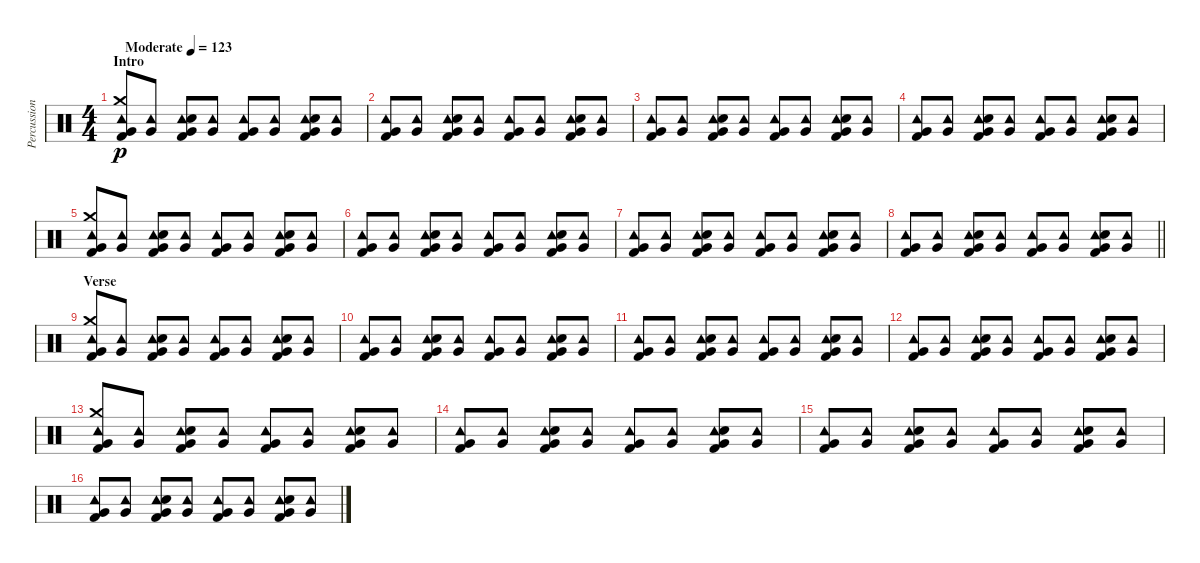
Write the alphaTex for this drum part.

\track ("Percussion" "Percussion") {instrument percussion}
\staff {score}
\articulation defaults
\ts (4 4)
\section ("" "Intro")
\tempo (123 "Moderate")
\clef neutral
\ks c
("Tambourine (hit)" "Crash medium (hit)" "Very Low Tom (hit)" "Kick (hit) 2").8{dy p} ("Tambourine (hit)" "Very Low Tom (hit)").8 ("Tambourine (hit)" "Very Low Tom (hit)" "Snare (hit) 2" "Kick (hit) 2").8 ("Tambourine (hit)" "Very Low Tom (hit)").8 ("Tambourine (hit)" "Very Low Tom (hit)" "Kick (hit) 2").8 ("Tambourine (hit)" "Very Low Tom (hit)").8 ("Tambourine (hit)" "Very Low Tom (hit)" "Snare (hit) 2" "Kick (hit) 2").8 ("Tambourine (hit)" "Very Low Tom (hit)").8 |
("Tambourine (hit)" "Very Low Tom (hit)" "Kick (hit) 2").8 ("Tambourine (hit)" "Very Low Tom (hit)").8 ("Tambourine (hit)" "Very Low Tom (hit)" "Snare (hit) 2" "Kick (hit) 2").8 ("Tambourine (hit)" "Very Low Tom (hit)").8 ("Tambourine (hit)" "Very Low Tom (hit)" "Kick (hit) 2").8 ("Tambourine (hit)" "Very Low Tom (hit)").8 ("Tambourine (hit)" "Very Low Tom (hit)" "Snare (hit) 2" "Kick (hit) 2").8 ("Tambourine (hit)" "Very Low Tom (hit)").8 |
("Tambourine (hit)" "Very Low Tom (hit)" "Kick (hit) 2").8 ("Tambourine (hit)" "Very Low Tom (hit)").8 ("Tambourine (hit)" "Very Low Tom (hit)" "Snare (hit) 2" "Kick (hit) 2").8 ("Tambourine (hit)" "Very Low Tom (hit)").8 ("Tambourine (hit)" "Very Low Tom (hit)" "Kick (hit) 2").8 ("Tambourine (hit)" "Very Low Tom (hit)").8 ("Tambourine (hit)" "Very Low Tom (hit)" "Snare (hit) 2" "Kick (hit) 2").8 ("Tambourine (hit)" "Very Low Tom (hit)").8 |
("Tambourine (hit)" "Very Low Tom (hit)" "Kick (hit) 2").8 ("Tambourine (hit)" "Very Low Tom (hit)").8 ("Tambourine (hit)" "Very Low Tom (hit)" "Snare (hit) 2" "Kick (hit) 2").8 ("Tambourine (hit)" "Very Low Tom (hit)").8 ("Tambourine (hit)" "Very Low Tom (hit)" "Kick (hit) 2").8 ("Tambourine (hit)" "Very Low Tom (hit)").8 ("Tambourine (hit)" "Very Low Tom (hit)" "Snare (hit) 2" "Kick (hit) 2").8 ("Tambourine (hit)" "Very Low Tom (hit)").8 |
("Tambourine (hit)" "Crash medium (hit)" "Very Low Tom (hit)" "Kick (hit) 2").8 ("Tambourine (hit)" "Very Low Tom (hit)").8 ("Tambourine (hit)" "Very Low Tom (hit)" "Snare (hit) 2" "Kick (hit) 2").8 ("Tambourine (hit)" "Very Low Tom (hit)").8 ("Tambourine (hit)" "Very Low Tom (hit)" "Kick (hit) 2").8 ("Tambourine (hit)" "Very Low Tom (hit)").8 ("Tambourine (hit)" "Very Low Tom (hit)" "Snare (hit) 2" "Kick (hit) 2").8 ("Tambourine (hit)" "Very Low Tom (hit)").8 |
("Tambourine (hit)" "Very Low Tom (hit)" "Kick (hit) 2").8 ("Tambourine (hit)" "Very Low Tom (hit)").8 ("Tambourine (hit)" "Very Low Tom (hit)" "Snare (hit) 2" "Kick (hit) 2").8 ("Tambourine (hit)" "Very Low Tom (hit)").8 ("Tambourine (hit)" "Very Low Tom (hit)" "Kick (hit) 2").8 ("Tambourine (hit)" "Very Low Tom (hit)").8 ("Tambourine (hit)" "Very Low Tom (hit)" "Snare (hit) 2" "Kick (hit) 2").8 ("Tambourine (hit)" "Very Low Tom (hit)").8 |
("Tambourine (hit)" "Very Low Tom (hit)" "Kick (hit) 2").8 ("Tambourine (hit)" "Very Low Tom (hit)").8 ("Tambourine (hit)" "Very Low Tom (hit)" "Snare (hit) 2" "Kick (hit) 2").8 ("Tambourine (hit)" "Very Low Tom (hit)").8 ("Tambourine (hit)" "Very Low Tom (hit)" "Kick (hit) 2").8 ("Tambourine (hit)" "Very Low Tom (hit)").8 ("Tambourine (hit)" "Very Low Tom (hit)" "Snare (hit) 2" "Kick (hit) 2").8 ("Tambourine (hit)" "Very Low Tom (hit)").8 |
\barLineRight lightlight
("Tambourine (hit)" "Very Low Tom (hit)" "Kick (hit) 2").8 ("Tambourine (hit)" "Very Low Tom (hit)").8 ("Tambourine (hit)" "Very Low Tom (hit)" "Snare (hit) 2" "Kick (hit) 2").8 ("Tambourine (hit)" "Very Low Tom (hit)").8 ("Tambourine (hit)" "Very Low Tom (hit)" "Kick (hit) 2").8 ("Tambourine (hit)" "Very Low Tom (hit)").8 ("Tambourine (hit)" "Very Low Tom (hit)" "Snare (hit) 2" "Kick (hit) 2").8 ("Tambourine (hit)" "Very Low Tom (hit)").8 |
\section ("" "Verse")
("Tambourine (hit)" "Crash medium (hit)" "Very Low Tom (hit)" "Kick (hit) 2").8 ("Tambourine (hit)" "Very Low Tom (hit)").8 ("Tambourine (hit)" "Very Low Tom (hit)" "Snare (hit) 2" "Kick (hit) 2").8 ("Tambourine (hit)" "Very Low Tom (hit)").8 ("Tambourine (hit)" "Very Low Tom (hit)" "Kick (hit) 2").8 ("Tambourine (hit)" "Very Low Tom (hit)").8 ("Tambourine (hit)" "Very Low Tom (hit)" "Snare (hit) 2" "Kick (hit) 2").8 ("Tambourine (hit)" "Very Low Tom (hit)").8 |
("Tambourine (hit)" "Very Low Tom (hit)" "Kick (hit) 2").8 ("Tambourine (hit)" "Very Low Tom (hit)").8 ("Tambourine (hit)" "Very Low Tom (hit)" "Snare (hit) 2" "Kick (hit) 2").8 ("Tambourine (hit)" "Very Low Tom (hit)").8 ("Tambourine (hit)" "Very Low Tom (hit)" "Kick (hit) 2").8 ("Tambourine (hit)" "Very Low Tom (hit)").8 ("Tambourine (hit)" "Very Low Tom (hit)" "Snare (hit) 2" "Kick (hit) 2").8 ("Tambourine (hit)" "Very Low Tom (hit)").8 |
("Tambourine (hit)" "Very Low Tom (hit)" "Kick (hit) 2").8 ("Tambourine (hit)" "Very Low Tom (hit)").8 ("Tambourine (hit)" "Very Low Tom (hit)" "Snare (hit) 2" "Kick (hit) 2").8 ("Tambourine (hit)" "Very Low Tom (hit)").8 ("Tambourine (hit)" "Very Low Tom (hit)" "Kick (hit) 2").8 ("Tambourine (hit)" "Very Low Tom (hit)").8 ("Tambourine (hit)" "Very Low Tom (hit)" "Snare (hit) 2" "Kick (hit) 2").8 ("Tambourine (hit)" "Very Low Tom (hit)").8 |
("Tambourine (hit)" "Very Low Tom (hit)" "Kick (hit) 2").8 ("Tambourine (hit)" "Very Low Tom (hit)").8 ("Tambourine (hit)" "Very Low Tom (hit)" "Snare (hit) 2" "Kick (hit) 2").8 ("Tambourine (hit)" "Very Low Tom (hit)").8 ("Tambourine (hit)" "Very Low Tom (hit)" "Kick (hit) 2").8 ("Tambourine (hit)" "Very Low Tom (hit)").8 ("Tambourine (hit)" "Very Low Tom (hit)" "Snare (hit) 2" "Kick (hit) 2").8 ("Tambourine (hit)" "Very Low Tom (hit)").8 |
("Tambourine (hit)" "Crash medium (hit)" "Very Low Tom (hit)" "Kick (hit) 2").8 ("Tambourine (hit)" "Very Low Tom (hit)").8 ("Tambourine (hit)" "Very Low Tom (hit)" "Snare (hit) 2" "Kick (hit) 2").8 ("Tambourine (hit)" "Very Low Tom (hit)").8 ("Tambourine (hit)" "Very Low Tom (hit)" "Kick (hit) 2").8 ("Tambourine (hit)" "Very Low Tom (hit)").8 ("Tambourine (hit)" "Very Low Tom (hit)" "Snare (hit) 2" "Kick (hit) 2").8 ("Tambourine (hit)" "Very Low Tom (hit)").8 |
("Tambourine (hit)" "Very Low Tom (hit)" "Kick (hit) 2").8 ("Tambourine (hit)" "Very Low Tom (hit)").8 ("Tambourine (hit)" "Very Low Tom (hit)" "Snare (hit) 2" "Kick (hit) 2").8 ("Tambourine (hit)" "Very Low Tom (hit)").8 ("Tambourine (hit)" "Very Low Tom (hit)" "Kick (hit) 2").8 ("Tambourine (hit)" "Very Low Tom (hit)").8 ("Tambourine (hit)" "Very Low Tom (hit)" "Snare (hit) 2" "Kick (hit) 2").8 ("Tambourine (hit)" "Very Low Tom (hit)").8 |
("Tambourine (hit)" "Very Low Tom (hit)" "Kick (hit) 2").8 ("Tambourine (hit)" "Very Low Tom (hit)").8 ("Tambourine (hit)" "Very Low Tom (hit)" "Snare (hit) 2" "Kick (hit) 2").8 ("Tambourine (hit)" "Very Low Tom (hit)").8 ("Tambourine (hit)" "Very Low Tom (hit)" "Kick (hit) 2").8 ("Tambourine (hit)" "Very Low Tom (hit)").8 ("Tambourine (hit)" "Very Low Tom (hit)" "Snare (hit) 2" "Kick (hit) 2").8 ("Tambourine (hit)" "Very Low Tom (hit)").8 |
("Tambourine (hit)" "Very Low Tom (hit)" "Kick (hit) 2").8 ("Tambourine (hit)" "Very Low Tom (hit)").8 ("Tambourine (hit)" "Very Low Tom (hit)" "Snare (hit) 2" "Kick (hit) 2").8 ("Tambourine (hit)" "Very Low Tom (hit)").8 ("Tambourine (hit)" "Very Low Tom (hit)" "Kick (hit) 2").8 ("Tambourine (hit)" "Very Low Tom (hit)").8 ("Tambourine (hit)" "Very Low Tom (hit)" "Snare (hit) 2" "Kick (hit) 2").8 ("Tambourine (hit)" "Very Low Tom (hit)").8
